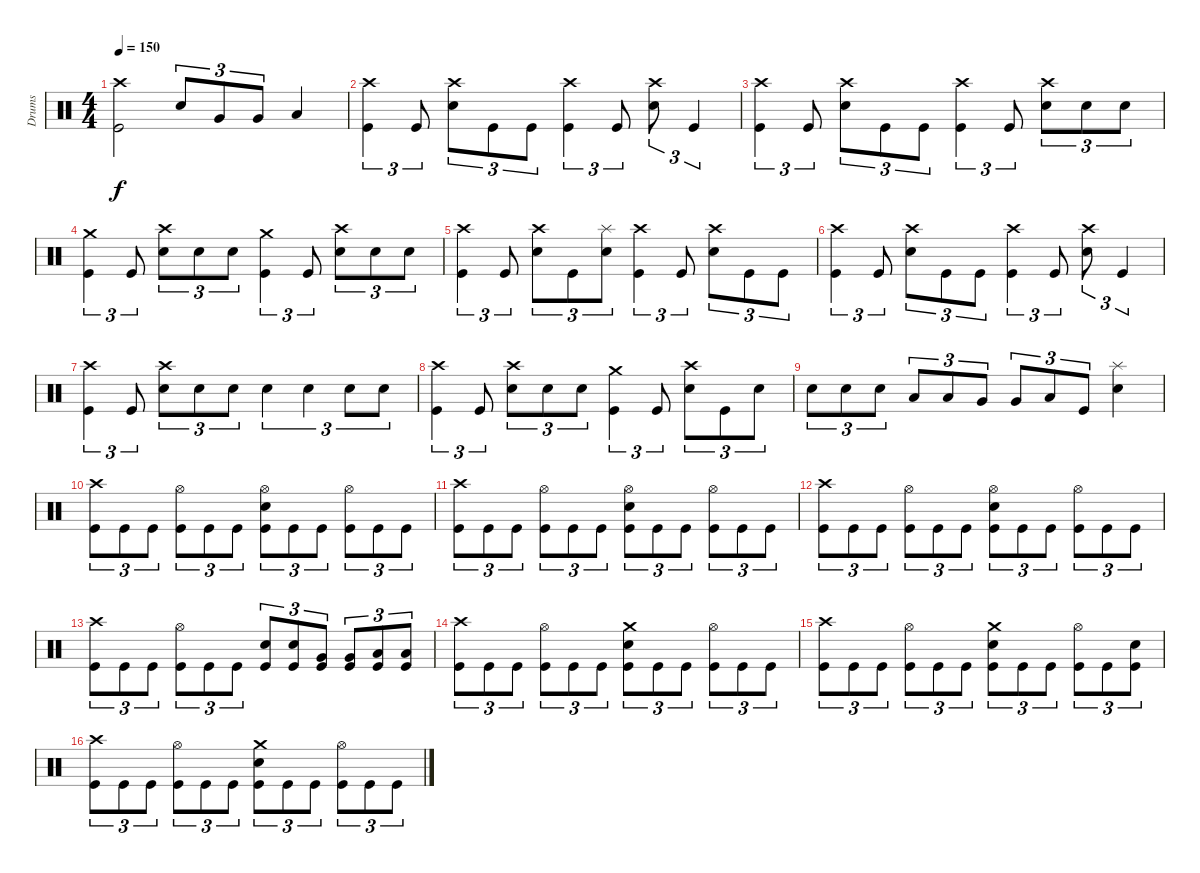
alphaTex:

\track ("Drums" "Drums") {instrument percussion}
\staff {score}
\articulation defaults
\ts (4 4)
\tempo 150
\clef neutral
\ks c
("Crash high (hit)" "Kick (hit)").2{dy f} "Electric Snare (hit)".8{tu (3 2)} "Very Low Tom (hit)".8{tu (3 2)} "Very Low Tom (hit)".8{tu (3 2)} "Low Floor Tom (hit)".4 |
("Crash high (hit)" "Kick (hit)").4{tu (3 2)} "Kick (hit)".8{tu (3 2)} ("Crash high (hit)" "Electric Snare (hit)").8{tu (3 2)} "Kick (hit)".8{tu (3 2)} "Kick (hit)".8{tu (3 2)} ("Crash high (hit)" "Kick (hit)").4{tu (3 2)} "Kick (hit)".8{tu (3 2)} ("Crash high (hit)" "Electric Snare (hit)").8{tu (3 2)} "Kick (hit)".4{tu (3 2)} |
("Crash high (hit)" "Kick (hit)").4{tu (3 2)} "Kick (hit)".8{tu (3 2)} ("Crash high (hit)" "Electric Snare (hit)").8{tu (3 2)} "Kick (hit)".8{tu (3 2)} "Kick (hit)".8{tu (3 2)} ("Crash high (hit)" "Kick (hit)").4{tu (3 2)} "Kick (hit)".8{tu (3 2)} ("Crash high (hit)" "Electric Snare (hit)").8{tu (3 2)} "Electric Snare (hit)".8{tu (3 2)} "Electric Snare (hit)".8{tu (3 2)} |
("Crash medium (hit)" "Kick (hit)").4{tu (3 2)} "Kick (hit)".8{tu (3 2)} ("Crash high (hit)" "Electric Snare (hit)").8{tu (3 2)} "Electric Snare (hit)".8{tu (3 2)} "Electric Snare (hit)".8{tu (3 2)} ("Crash medium (hit)" "Kick (hit)").4{tu (3 2)} "Kick (hit)".8{tu (3 2)} ("Crash high (hit)" "Electric Snare (hit)").8{tu (3 2)} "Electric Snare (hit)".8{tu (3 2)} "Electric Snare (hit)".8{tu (3 2)} |
("Crash high (hit)" "Kick (hit)").4{tu (3 2)} "Kick (hit)".8{tu (3 2)} ("Crash high (hit)" "Electric Snare (hit)").8{tu (3 2)} "Kick (hit)".8{tu (3 2)} ("Splash (hit)" "Electric Snare (hit)").8{tu (3 2)} ("Crash high (hit)" "Kick (hit)").4{tu (3 2)} "Kick (hit)".8{tu (3 2)} ("Crash high (hit)" "Electric Snare (hit)").8{tu (3 2)} "Kick (hit)".8{tu (3 2)} "Kick (hit)".8{tu (3 2)} |
("Crash high (hit)" "Kick (hit)").4{tu (3 2)} "Kick (hit)".8{tu (3 2)} ("Crash high (hit)" "Electric Snare (hit)").8{tu (3 2)} "Kick (hit)".8{tu (3 2)} "Kick (hit)".8{tu (3 2)} ("Crash high (hit)" "Kick (hit)").4{tu (3 2)} "Kick (hit)".8{tu (3 2)} ("Crash high (hit)" "Electric Snare (hit)").8{tu (3 2)} "Kick (hit)".4{tu (3 2)} |
("Crash high (hit)" "Kick (hit)").4{tu (3 2)} "Kick (hit)".8{tu (3 2)} ("Crash high (hit)" "Electric Snare (hit)").8{tu (3 2)} "Electric Snare (hit)".8{tu (3 2)} "Electric Snare (hit)".8{tu (3 2)} "Electric Snare (hit)".4{tu (3 2)} "Electric Snare (hit)".4{tu (3 2)} "Electric Snare (hit)".8{tu (3 2)} "Electric Snare (hit)".8{tu (3 2)} |
("Crash high (hit)" "Kick (hit)").4{tu (3 2)} "Kick (hit)".8{tu (3 2)} ("Crash high (hit)" "Electric Snare (hit)").8{tu (3 2)} "Electric Snare (hit)".8{tu (3 2)} "Electric Snare (hit)".8{tu (3 2)} ("Crash medium (hit)" "Kick (hit)").4{tu (3 2)} "Kick (hit)".8{tu (3 2)} ("Crash high (hit)" "Electric Snare (hit)").8{tu (3 2)} "Kick (hit)".8{tu (3 2)} "Electric Snare (hit)".8{tu (3 2)} |
"Electric Snare (hit)".8{tu (3 2)} "Electric Snare (hit)".8{tu (3 2)} "Electric Snare (hit)".8{tu (3 2)} "Low Tom (hit)".8{tu (3 2)} "Low Tom (hit)".8{tu (3 2)} "Very Low Tom (hit)".8{tu (3 2)} "Very Low Tom (hit)".8{tu (3 2)} "Low Floor Tom (hit)".8{tu (3 2)} "Kick (hit)".8{tu (3 2)} ("Splash (hit)" "Electric Snare (hit)").4 |
("Crash high (hit)" "Kick (hit)").8{tu (3 2)} "Kick (hit)".8{tu (3 2)} "Kick (hit)".8{tu (3 2)} ("Hi-Hat (open)" "Kick (hit)").8{tu (3 2)} "Kick (hit)".8{tu (3 2)} "Kick (hit)".8{tu (3 2)} ("Hi-Hat (open)" "Electric Snare (hit)" "Kick (hit)").8{tu (3 2)} "Kick (hit)".8{tu (3 2)} "Kick (hit)".8{tu (3 2)} ("Hi-Hat (open)" "Kick (hit)").8{tu (3 2)} "Kick (hit)".8{tu (3 2)} "Kick (hit)".8{tu (3 2)} |
("Crash high (hit)" "Kick (hit)").8{tu (3 2)} "Kick (hit)".8{tu (3 2)} "Kick (hit)".8{tu (3 2)} ("Hi-Hat (open)" "Kick (hit)").8{tu (3 2)} "Kick (hit)".8{tu (3 2)} "Kick (hit)".8{tu (3 2)} ("Hi-Hat (open)" "Electric Snare (hit)" "Kick (hit)").8{tu (3 2)} "Kick (hit)".8{tu (3 2)} "Kick (hit)".8{tu (3 2)} ("Hi-Hat (open)" "Kick (hit)").8{tu (3 2)} "Kick (hit)".8{tu (3 2)} "Kick (hit)".8{tu (3 2)} |
("Crash high (hit)" "Kick (hit)").8{tu (3 2)} "Kick (hit)".8{tu (3 2)} "Kick (hit)".8{tu (3 2)} ("Hi-Hat (open)" "Kick (hit)").8{tu (3 2)} "Kick (hit)".8{tu (3 2)} "Kick (hit)".8{tu (3 2)} ("Hi-Hat (open)" "Electric Snare (hit)" "Kick (hit)").8{tu (3 2)} "Kick (hit)".8{tu (3 2)} "Kick (hit)".8{tu (3 2)} ("Hi-Hat (open)" "Kick (hit)").8{tu (3 2)} "Kick (hit)".8{tu (3 2)} "Kick (hit)".8{tu (3 2)} |
("Crash high (hit)" "Kick (hit)").8{tu (3 2)} "Kick (hit)".8{tu (3 2)} "Kick (hit)".8{tu (3 2)} ("Hi-Hat (open)" "Kick (hit)").8{tu (3 2)} "Kick (hit)".8{tu (3 2)} "Kick (hit)".8{tu (3 2)} ("Electric Snare (hit)" "Kick (hit)").8{tu (3 2)} ("Electric Snare (hit)" "Kick (hit)").8{tu (3 2)} ("Kick (hit)" "Very Low Tom (hit)").8{tu (3 2)} ("Kick (hit)" "Very Low Tom (hit)").8{tu (3 2)} ("Kick (hit)" "Low Floor Tom (hit)").8{tu (3 2)} ("Kick (hit)" "Low Floor Tom (hit)").8{tu (3 2)} |
("Crash high (hit)" "Kick (hit)").8{tu (3 2)} "Kick (hit)".8{tu (3 2)} "Kick (hit)".8{tu (3 2)} ("Hi-Hat (open)" "Kick (hit)").8{tu (3 2)} "Kick (hit)".8{tu (3 2)} "Kick (hit)".8{tu (3 2)} ("Crash medium (hit)" "Electric Snare (hit)" "Kick (hit)").8{tu (3 2)} "Kick (hit)".8{tu (3 2)} "Kick (hit)".8{tu (3 2)} ("Hi-Hat (open)" "Kick (hit)").8{tu (3 2)} "Kick (hit)".8{tu (3 2)} "Kick (hit)".8{tu (3 2)} |
("Crash high (hit)" "Kick (hit)").8{tu (3 2)} "Kick (hit)".8{tu (3 2)} "Kick (hit)".8{tu (3 2)} ("Hi-Hat (open)" "Kick (hit)").8{tu (3 2)} "Kick (hit)".8{tu (3 2)} "Kick (hit)".8{tu (3 2)} ("Crash medium (hit)" "Electric Snare (hit)" "Kick (hit)").8{tu (3 2)} "Kick (hit)".8{tu (3 2)} "Kick (hit)".8{tu (3 2)} ("Hi-Hat (open)" "Kick (hit)").8{tu (3 2)} "Kick (hit)".8{tu (3 2)} ("Electric Snare (hit)" "Kick (hit)").8{tu (3 2)} |
("Crash high (hit)" "Kick (hit)").8{tu (3 2)} "Kick (hit)".8{tu (3 2)} "Kick (hit)".8{tu (3 2)} ("Hi-Hat (open)" "Kick (hit)").8{tu (3 2)} "Kick (hit)".8{tu (3 2)} "Kick (hit)".8{tu (3 2)} ("Crash medium (hit)" "Electric Snare (hit)" "Kick (hit)").8{tu (3 2)} "Kick (hit)".8{tu (3 2)} "Kick (hit)".8{tu (3 2)} ("Hi-Hat (open)" "Kick (hit)").8{tu (3 2)} "Kick (hit)".8{tu (3 2)} "Kick (hit)".8{tu (3 2)}
